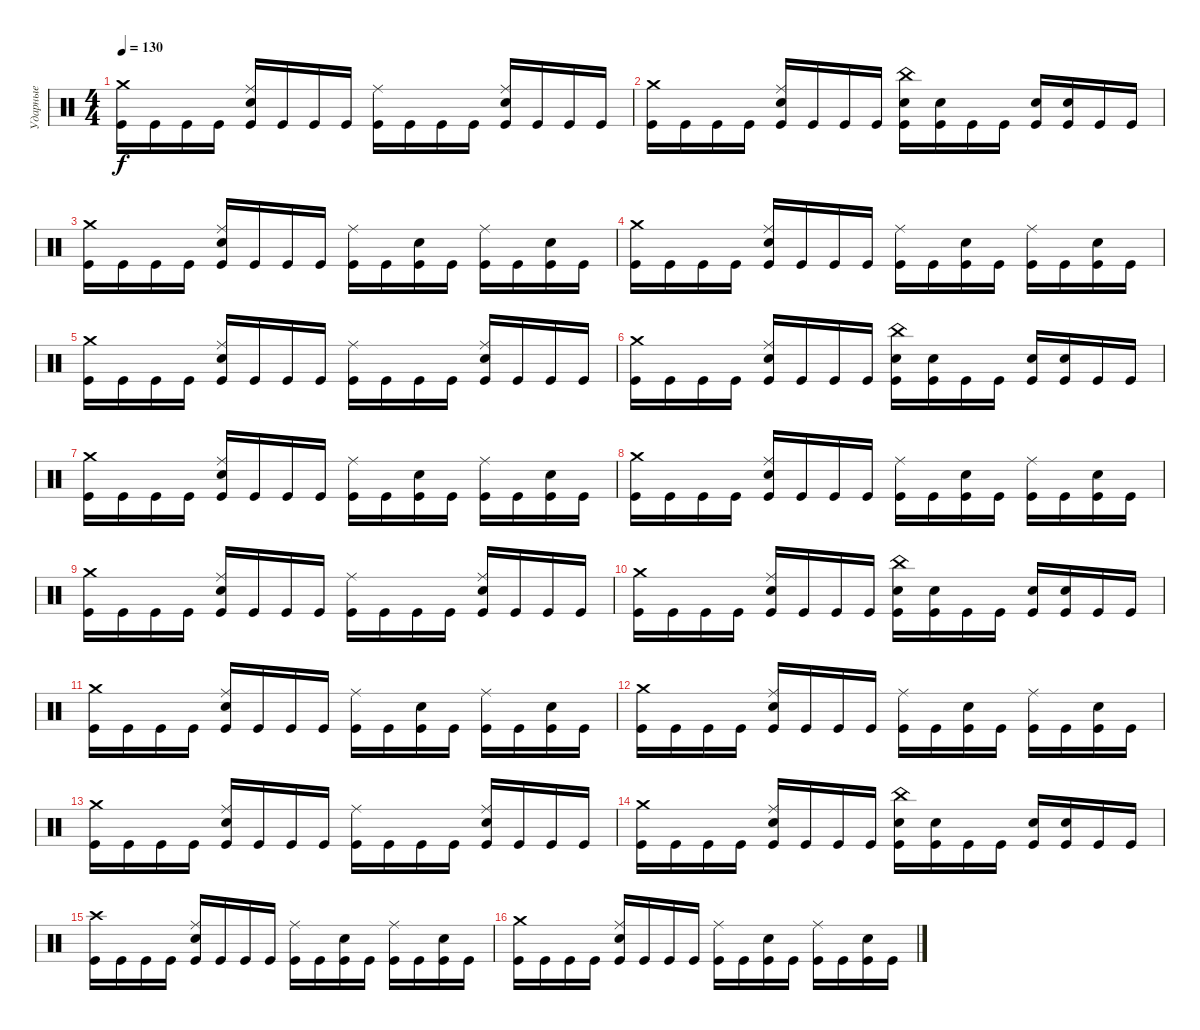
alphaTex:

\track ("Ударные" "Ударные") {instrument percussion}
\staff {score}
\articulation defaults
\ts (4 4)
\tempo 130
\clef neutral
\ks c
("Crash medium (hit)" "Kick (hit)").16{dy f} "Kick (hit)".16 "Kick (hit)".16 "Kick (hit)".16 ("Ride (middle)" "Electric Snare (hit)" "Kick (hit)").16 "Kick (hit)".16 "Kick (hit)".16 "Kick (hit)".16 ("Ride (middle)" "Kick (hit)").16 "Kick (hit)".16 "Kick (hit)".16 "Kick (hit)".16 ("Ride (middle)" "Electric Snare (hit)" "Kick (hit)").16 "Kick (hit)".16 "Kick (hit)".16 "Kick (hit)".16 |
("Crash medium (hit)" "Kick (hit)").16 "Kick (hit)".16 "Kick (hit)".16 "Kick (hit)".16 ("Ride (middle)" "Electric Snare (hit)" "Kick (hit)").16 "Kick (hit)".16 "Kick (hit)".16 "Kick (hit)".16 ("China (hit)" "Electric Snare (hit)" "Kick (hit)").16 ("Electric Snare (hit)" "Kick (hit)").16 "Kick (hit)".16 "Kick (hit)".16 ("Electric Snare (hit)" "Kick (hit)").16 ("Electric Snare (hit)" "Kick (hit)").16 "Kick (hit)".16 "Kick (hit)".16 |
("Crash medium (hit)" "Kick (hit)").16 "Kick (hit)".16 "Kick (hit)".16 "Kick (hit)".16 ("Ride (middle)" "Electric Snare (hit)" "Kick (hit)").16 "Kick (hit)".16 "Kick (hit)".16 "Kick (hit)".16 ("Ride (middle)" "Kick (hit)").16 "Kick (hit)".16 ("Electric Snare (hit)" "Kick (hit)").16 "Kick (hit)".16 ("Ride (middle)" "Kick (hit)").16 "Kick (hit)".16 ("Electric Snare (hit)" "Kick (hit)").16 "Kick (hit)".16 |
("Crash medium (hit)" "Kick (hit)").16 "Kick (hit)".16 "Kick (hit)".16 "Kick (hit)".16 ("Ride (middle)" "Electric Snare (hit)" "Kick (hit)").16 "Kick (hit)".16 "Kick (hit)".16 "Kick (hit)".16 ("Ride (middle)" "Kick (hit)").16 "Kick (hit)".16 ("Electric Snare (hit)" "Kick (hit)").16 "Kick (hit)".16 ("Ride (middle)" "Kick (hit)").16 "Kick (hit)".16 ("Electric Snare (hit)" "Kick (hit)").16 "Kick (hit)".16 |
("Crash medium (hit)" "Kick (hit)").16 "Kick (hit)".16 "Kick (hit)".16 "Kick (hit)".16 ("Ride (middle)" "Electric Snare (hit)" "Kick (hit)").16 "Kick (hit)".16 "Kick (hit)".16 "Kick (hit)".16 ("Ride (middle)" "Kick (hit)").16 "Kick (hit)".16 "Kick (hit)".16 "Kick (hit)".16 ("Ride (middle)" "Electric Snare (hit)" "Kick (hit)").16 "Kick (hit)".16 "Kick (hit)".16 "Kick (hit)".16 |
("Crash medium (hit)" "Kick (hit)").16 "Kick (hit)".16 "Kick (hit)".16 "Kick (hit)".16 ("Ride (middle)" "Electric Snare (hit)" "Kick (hit)").16 "Kick (hit)".16 "Kick (hit)".16 "Kick (hit)".16 ("China (hit)" "Electric Snare (hit)" "Kick (hit)").16 ("Electric Snare (hit)" "Kick (hit)").16 "Kick (hit)".16 "Kick (hit)".16 ("Electric Snare (hit)" "Kick (hit)").16 ("Electric Snare (hit)" "Kick (hit)").16 "Kick (hit)".16 "Kick (hit)".16 |
("Crash medium (hit)" "Kick (hit)").16 "Kick (hit)".16 "Kick (hit)".16 "Kick (hit)".16 ("Ride (middle)" "Electric Snare (hit)" "Kick (hit)").16 "Kick (hit)".16 "Kick (hit)".16 "Kick (hit)".16 ("Ride (middle)" "Kick (hit)").16 "Kick (hit)".16 ("Electric Snare (hit)" "Kick (hit)").16 "Kick (hit)".16 ("Ride (middle)" "Kick (hit)").16 "Kick (hit)".16 ("Electric Snare (hit)" "Kick (hit)").16 "Kick (hit)".16 |
("Crash medium (hit)" "Kick (hit)").16 "Kick (hit)".16 "Kick (hit)".16 "Kick (hit)".16 ("Ride (middle)" "Electric Snare (hit)" "Kick (hit)").16 "Kick (hit)".16 "Kick (hit)".16 "Kick (hit)".16 ("Ride (middle)" "Kick (hit)").16 "Kick (hit)".16 ("Electric Snare (hit)" "Kick (hit)").16 "Kick (hit)".16 ("Ride (middle)" "Kick (hit)").16 "Kick (hit)".16 ("Electric Snare (hit)" "Kick (hit)").16 "Kick (hit)".16 |
("Crash medium (hit)" "Kick (hit)").16 "Kick (hit)".16 "Kick (hit)".16 "Kick (hit)".16 ("Ride (middle)" "Electric Snare (hit)" "Kick (hit)").16 "Kick (hit)".16 "Kick (hit)".16 "Kick (hit)".16 ("Ride (middle)" "Kick (hit)").16 "Kick (hit)".16 "Kick (hit)".16 "Kick (hit)".16 ("Ride (middle)" "Electric Snare (hit)" "Kick (hit)").16 "Kick (hit)".16 "Kick (hit)".16 "Kick (hit)".16 |
("Crash medium (hit)" "Kick (hit)").16 "Kick (hit)".16 "Kick (hit)".16 "Kick (hit)".16 ("Ride (middle)" "Electric Snare (hit)" "Kick (hit)").16 "Kick (hit)".16 "Kick (hit)".16 "Kick (hit)".16 ("China (hit)" "Electric Snare (hit)" "Kick (hit)").16 ("Electric Snare (hit)" "Kick (hit)").16 "Kick (hit)".16 "Kick (hit)".16 ("Electric Snare (hit)" "Kick (hit)").16 ("Electric Snare (hit)" "Kick (hit)").16 "Kick (hit)".16 "Kick (hit)".16 |
("Crash medium (hit)" "Kick (hit)").16 "Kick (hit)".16 "Kick (hit)".16 "Kick (hit)".16 ("Ride (middle)" "Electric Snare (hit)" "Kick (hit)").16 "Kick (hit)".16 "Kick (hit)".16 "Kick (hit)".16 ("Ride (middle)" "Kick (hit)").16 "Kick (hit)".16 ("Electric Snare (hit)" "Kick (hit)").16 "Kick (hit)".16 ("Ride (middle)" "Kick (hit)").16 "Kick (hit)".16 ("Electric Snare (hit)" "Kick (hit)").16 "Kick (hit)".16 |
("Crash medium (hit)" "Kick (hit)").16 "Kick (hit)".16 "Kick (hit)".16 "Kick (hit)".16 ("Ride (middle)" "Electric Snare (hit)" "Kick (hit)").16 "Kick (hit)".16 "Kick (hit)".16 "Kick (hit)".16 ("Ride (middle)" "Kick (hit)").16 "Kick (hit)".16 ("Electric Snare (hit)" "Kick (hit)").16 "Kick (hit)".16 ("Ride (middle)" "Kick (hit)").16 "Kick (hit)".16 ("Electric Snare (hit)" "Kick (hit)").16 "Kick (hit)".16 |
("Crash medium (hit)" "Kick (hit)").16 "Kick (hit)".16 "Kick (hit)".16 "Kick (hit)".16 ("Ride (middle)" "Electric Snare (hit)" "Kick (hit)").16 "Kick (hit)".16 "Kick (hit)".16 "Kick (hit)".16 ("Ride (middle)" "Kick (hit)").16 "Kick (hit)".16 "Kick (hit)".16 "Kick (hit)".16 ("Ride (middle)" "Electric Snare (hit)" "Kick (hit)").16 "Kick (hit)".16 "Kick (hit)".16 "Kick (hit)".16 |
("Crash medium (hit)" "Kick (hit)").16 "Kick (hit)".16 "Kick (hit)".16 "Kick (hit)".16 ("Ride (middle)" "Electric Snare (hit)" "Kick (hit)").16 "Kick (hit)".16 "Kick (hit)".16 "Kick (hit)".16 ("China (hit)" "Electric Snare (hit)" "Kick (hit)").16 ("Electric Snare (hit)" "Kick (hit)").16 "Kick (hit)".16 "Kick (hit)".16 ("Electric Snare (hit)" "Kick (hit)").16 ("Electric Snare (hit)" "Kick (hit)").16 "Kick (hit)".16 "Kick (hit)".16 |
("Crash high (hit)" "Kick (hit)").16 "Kick (hit)".16 "Kick (hit)".16 "Kick (hit)".16 ("Ride (middle)" "Electric Snare (hit)" "Kick (hit)").16 "Kick (hit)".16 "Kick (hit)".16 "Kick (hit)".16 ("Ride (middle)" "Kick (hit)").16 "Kick (hit)".16 ("Electric Snare (hit)" "Kick (hit)").16 "Kick (hit)".16 ("Ride (middle)" "Kick (hit)").16 "Kick (hit)".16 ("Electric Snare (hit)" "Kick (hit)").16 "Kick (hit)".16 |
("Crash medium (hit)" "Kick (hit)").16 "Kick (hit)".16 "Kick (hit)".16 "Kick (hit)".16 ("Ride (middle)" "Electric Snare (hit)" "Kick (hit)").16 "Kick (hit)".16 "Kick (hit)".16 "Kick (hit)".16 ("Ride (middle)" "Kick (hit)").16 "Kick (hit)".16 ("Electric Snare (hit)" "Kick (hit)").16 "Kick (hit)".16 ("Ride (middle)" "Kick (hit)").16 "Kick (hit)".16 ("Electric Snare (hit)" "Kick (hit)").16 "Kick (hit)".16
